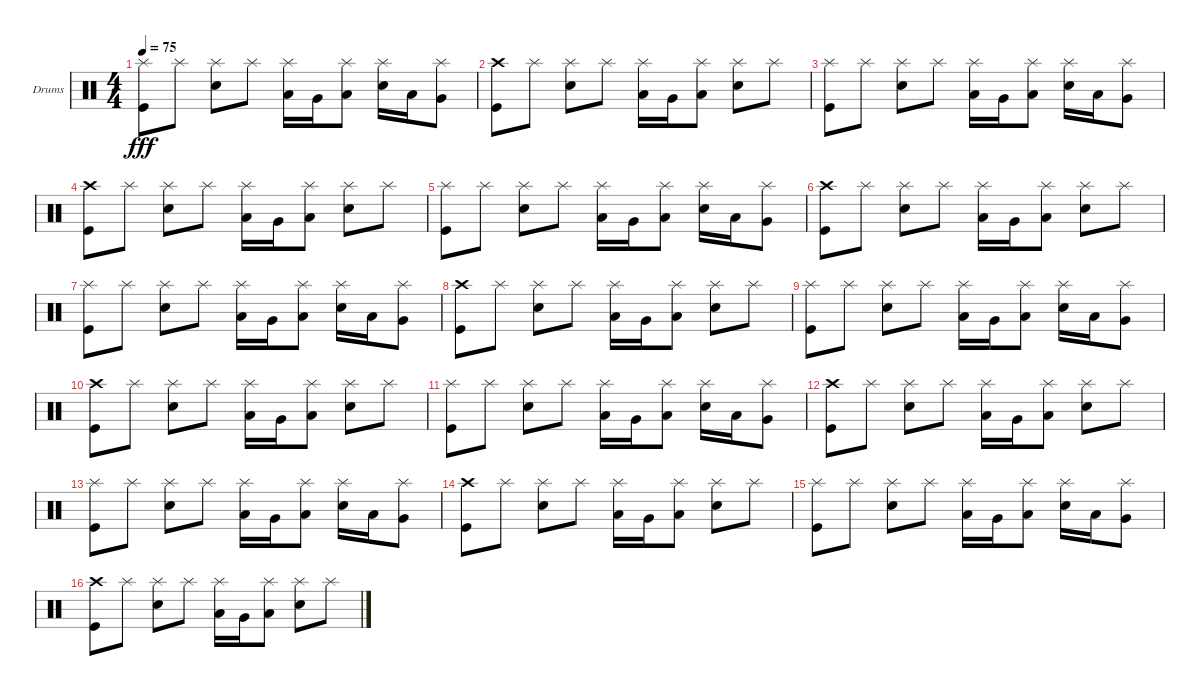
\defaultSystemsLayout 4
\bracketExtendMode groupsimilarinstruments
\firstSystemTrackNameOrientation horizontal
\otherSystemsTrackNameOrientation horizontal
\track ("Craig Nunenmacher" "Drums") {instrument percussion}
\staff {score}
\articulation defaults
\ts (4 4)
\tempo 75
\clef neutral
\ks c
("Kick (hit)" "Splash (hit)").8{dy fff} "Splash (hit)".8 ("Snare (hit) 2" "Splash (hit)").8 "Splash (hit)".8 ("Low Tom (hit)" "Splash (hit)").16 "Very Low Tom (hit)".16 ("Low Tom (hit)" "Splash (hit)").8 ("Snare (hit) 2" "Splash (hit)").16 "Low Tom (hit)".16 ("Very Low Tom (hit)" "Splash (hit)").8 |
("Kick (hit)" "Crash high (hit)").8 "Splash (hit)".8 ("Snare (hit) 2" "Splash (hit)").8 "Splash (hit)".8 ("Low Tom (hit)" "Splash (hit)").16 "Very Low Tom (hit)".16 ("Low Tom (hit)" "Splash (hit)").8 ("Snare (hit) 2" "Splash (hit)").8 "Splash (hit)".8 |
("Kick (hit)" "Splash (hit)").8 "Splash (hit)".8 ("Snare (hit) 2" "Splash (hit)").8 "Splash (hit)".8 ("Low Tom (hit)" "Splash (hit)").16 "Very Low Tom (hit)".16 ("Low Tom (hit)" "Splash (hit)").8 ("Snare (hit) 2" "Splash (hit)").16 "Low Tom (hit)".16 ("Very Low Tom (hit)" "Splash (hit)").8 |
("Kick (hit)" "Crash high (hit)").8 "Splash (hit)".8 ("Snare (hit) 2" "Splash (hit)").8 "Splash (hit)".8 ("Low Tom (hit)" "Splash (hit)").16 "Very Low Tom (hit)".16 ("Low Tom (hit)" "Splash (hit)").8 ("Snare (hit) 2" "Splash (hit)").8 "Splash (hit)".8 |
("Kick (hit)" "Splash (hit)").8 "Splash (hit)".8 ("Snare (hit) 2" "Splash (hit)").8 "Splash (hit)".8 ("Low Tom (hit)" "Splash (hit)").16 "Very Low Tom (hit)".16 ("Low Tom (hit)" "Splash (hit)").8 ("Snare (hit) 2" "Splash (hit)").16 "Low Tom (hit)".16 ("Very Low Tom (hit)" "Splash (hit)").8 |
("Kick (hit)" "Crash high (hit)").8 "Splash (hit)".8 ("Snare (hit) 2" "Splash (hit)").8 "Splash (hit)".8 ("Low Tom (hit)" "Splash (hit)").16 "Very Low Tom (hit)".16 ("Low Tom (hit)" "Splash (hit)").8 ("Snare (hit) 2" "Splash (hit)").8 "Splash (hit)".8 |
("Kick (hit)" "Splash (hit)").8 "Splash (hit)".8 ("Snare (hit) 2" "Splash (hit)").8 "Splash (hit)".8 ("Low Tom (hit)" "Splash (hit)").16 "Very Low Tom (hit)".16 ("Low Tom (hit)" "Splash (hit)").8 ("Snare (hit) 2" "Splash (hit)").16 "Low Tom (hit)".16 ("Very Low Tom (hit)" "Splash (hit)").8 |
("Kick (hit)" "Crash high (hit)").8 "Splash (hit)".8 ("Snare (hit) 2" "Splash (hit)").8 "Splash (hit)".8 ("Low Tom (hit)" "Splash (hit)").16 "Very Low Tom (hit)".16 ("Low Tom (hit)" "Splash (hit)").8 ("Snare (hit) 2" "Splash (hit)").8 "Splash (hit)".8 |
("Kick (hit)" "Splash (hit)").8 "Splash (hit)".8 ("Snare (hit) 2" "Splash (hit)").8 "Splash (hit)".8 ("Low Tom (hit)" "Splash (hit)").16 "Very Low Tom (hit)".16 ("Low Tom (hit)" "Splash (hit)").8 ("Snare (hit) 2" "Splash (hit)").16 "Low Tom (hit)".16 ("Very Low Tom (hit)" "Splash (hit)").8 |
("Kick (hit)" "Crash high (hit)").8 "Splash (hit)".8 ("Snare (hit) 2" "Splash (hit)").8 "Splash (hit)".8 ("Low Tom (hit)" "Splash (hit)").16 "Very Low Tom (hit)".16 ("Low Tom (hit)" "Splash (hit)").8 ("Snare (hit) 2" "Splash (hit)").8 "Splash (hit)".8 |
("Kick (hit)" "Splash (hit)").8 "Splash (hit)".8 ("Snare (hit) 2" "Splash (hit)").8 "Splash (hit)".8 ("Low Tom (hit)" "Splash (hit)").16 "Very Low Tom (hit)".16 ("Low Tom (hit)" "Splash (hit)").8 ("Snare (hit) 2" "Splash (hit)").16 "Low Tom (hit)".16 ("Very Low Tom (hit)" "Splash (hit)").8 |
("Kick (hit)" "Crash high (hit)").8 "Splash (hit)".8 ("Snare (hit) 2" "Splash (hit)").8 "Splash (hit)".8 ("Low Tom (hit)" "Splash (hit)").16 "Very Low Tom (hit)".16 ("Low Tom (hit)" "Splash (hit)").8 ("Snare (hit) 2" "Splash (hit)").8 "Splash (hit)".8 |
("Kick (hit)" "Splash (hit)").8 "Splash (hit)".8 ("Snare (hit) 2" "Splash (hit)").8 "Splash (hit)".8 ("Low Tom (hit)" "Splash (hit)").16 "Very Low Tom (hit)".16 ("Low Tom (hit)" "Splash (hit)").8 ("Snare (hit) 2" "Splash (hit)").16 "Low Tom (hit)".16 ("Very Low Tom (hit)" "Splash (hit)").8 |
("Kick (hit)" "Crash high (hit)").8 "Splash (hit)".8 ("Snare (hit) 2" "Splash (hit)").8 "Splash (hit)".8 ("Low Tom (hit)" "Splash (hit)").16 "Very Low Tom (hit)".16 ("Low Tom (hit)" "Splash (hit)").8 ("Snare (hit) 2" "Splash (hit)").8 "Splash (hit)".8 |
("Kick (hit)" "Splash (hit)").8 "Splash (hit)".8 ("Snare (hit) 2" "Splash (hit)").8 "Splash (hit)".8 ("Low Tom (hit)" "Splash (hit)").16 "Very Low Tom (hit)".16 ("Low Tom (hit)" "Splash (hit)").8 ("Snare (hit) 2" "Splash (hit)").16 "Low Tom (hit)".16 ("Very Low Tom (hit)" "Splash (hit)").8 |
("Kick (hit)" "Crash high (hit)").8 "Splash (hit)".8 ("Snare (hit) 2" "Splash (hit)").8 "Splash (hit)".8 ("Low Tom (hit)" "Splash (hit)").16 "Very Low Tom (hit)".16 ("Low Tom (hit)" "Splash (hit)").8 ("Snare (hit) 2" "Splash (hit)").8 "Splash (hit)".8
